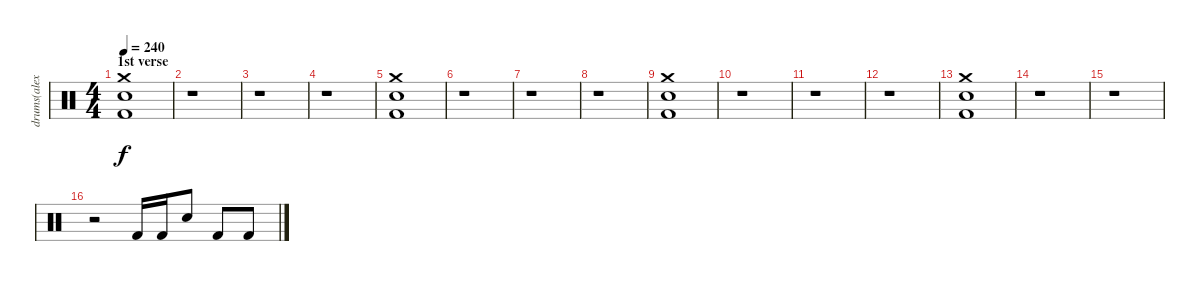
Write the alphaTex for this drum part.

\track ("drums(alex holzshwart)" "drums(alex") {instrument percussion}
\staff {score}
\articulation defaults
\ts (4 4)
\section ("" "1st verse")
\tempo 240
\clef neutral
\ks c
("Crash medium (hit)" "Electric Snare (hit)" "Kick (hit) 2").1{dy f} |
r.1 |
r.1 |
r.1 |
("Crash medium (hit)" "Electric Snare (hit)" "Kick (hit) 2").1 |
r.1 |
r.1 |
r.1 |
("Crash medium (hit)" "Electric Snare (hit)" "Kick (hit) 2").1 |
r.1 |
r.1 |
r.1 |
("Crash medium (hit)" "Electric Snare (hit)" "Kick (hit) 2").1 |
r.1 |
r.1 |
r.2 "Kick (hit) 2".16 "Kick (hit) 2".16 "Electric Snare (hit)".8 "Kick (hit) 2".8 "Kick (hit) 2".8
